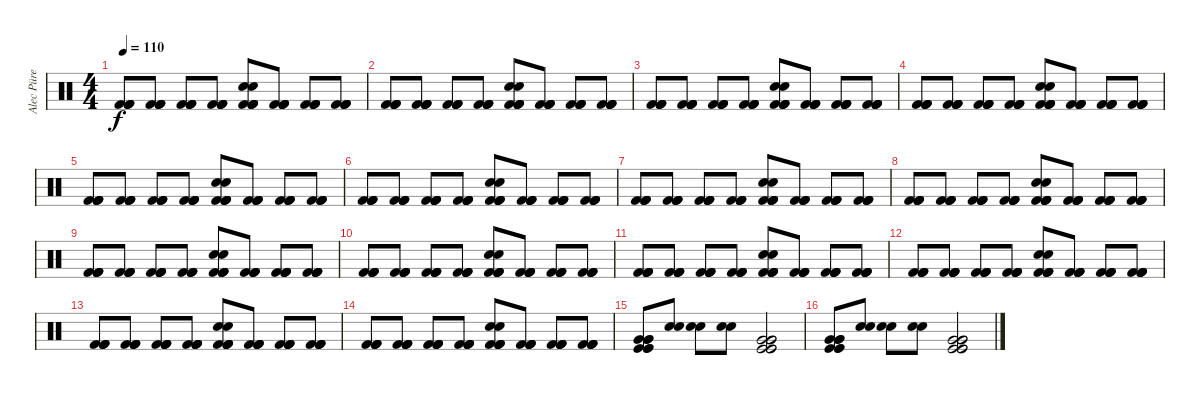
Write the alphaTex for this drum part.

\track ("Alec Püre" "Alec Püre") {instrument percussion}
\staff {score}
\articulation defaults
\ts (4 4)
\tempo 110
\clef neutral
\ks c
("Kick (hit) 2" "Kick (hit) 2" "Kick (hit) 2" "Kick (hit) 2").8{dy f} ("Kick (hit) 2" "Kick (hit) 2" "Kick (hit) 2" "Kick (hit) 2").8 ("Kick (hit) 2" "Kick (hit) 2" "Kick (hit) 2" "Kick (hit) 2").8 ("Kick (hit) 2" "Kick (hit) 2" "Kick (hit) 2" "Kick (hit) 2").8 ("Snare (hit) 2" "Snare (hit) 2" "Kick (hit) 2" "Kick (hit) 2" "Kick (hit) 2" "Kick (hit) 2").8 ("Kick (hit) 2" "Kick (hit) 2" "Kick (hit) 2" "Kick (hit) 2").8 ("Kick (hit) 2" "Kick (hit) 2" "Kick (hit) 2" "Kick (hit) 2").8 ("Kick (hit) 2" "Kick (hit) 2" "Kick (hit) 2" "Kick (hit) 2").8 |
("Kick (hit) 2" "Kick (hit) 2" "Kick (hit) 2" "Kick (hit) 2").8 ("Kick (hit) 2" "Kick (hit) 2" "Kick (hit) 2" "Kick (hit) 2").8 ("Kick (hit) 2" "Kick (hit) 2" "Kick (hit) 2" "Kick (hit) 2").8 ("Kick (hit) 2" "Kick (hit) 2" "Kick (hit) 2" "Kick (hit) 2").8 ("Snare (hit) 2" "Snare (hit) 2" "Kick (hit) 2" "Kick (hit) 2" "Kick (hit) 2" "Kick (hit) 2").8 ("Kick (hit) 2" "Kick (hit) 2" "Kick (hit) 2" "Kick (hit) 2").8 ("Kick (hit) 2" "Kick (hit) 2" "Kick (hit) 2" "Kick (hit) 2").8 ("Kick (hit) 2" "Kick (hit) 2" "Kick (hit) 2" "Kick (hit) 2").8 |
("Kick (hit) 2" "Kick (hit) 2" "Kick (hit) 2" "Kick (hit) 2").8 ("Kick (hit) 2" "Kick (hit) 2" "Kick (hit) 2" "Kick (hit) 2").8 ("Kick (hit) 2" "Kick (hit) 2" "Kick (hit) 2" "Kick (hit) 2").8 ("Kick (hit) 2" "Kick (hit) 2" "Kick (hit) 2" "Kick (hit) 2").8 ("Snare (hit) 2" "Snare (hit) 2" "Kick (hit) 2" "Kick (hit) 2" "Kick (hit) 2" "Kick (hit) 2").8 ("Kick (hit) 2" "Kick (hit) 2" "Kick (hit) 2" "Kick (hit) 2").8 ("Kick (hit) 2" "Kick (hit) 2" "Kick (hit) 2" "Kick (hit) 2").8 ("Kick (hit) 2" "Kick (hit) 2" "Kick (hit) 2" "Kick (hit) 2").8 |
("Kick (hit) 2" "Kick (hit) 2" "Kick (hit) 2" "Kick (hit) 2").8 ("Kick (hit) 2" "Kick (hit) 2" "Kick (hit) 2" "Kick (hit) 2").8 ("Kick (hit) 2" "Kick (hit) 2" "Kick (hit) 2" "Kick (hit) 2").8 ("Kick (hit) 2" "Kick (hit) 2" "Kick (hit) 2" "Kick (hit) 2").8 ("Snare (hit) 2" "Snare (hit) 2" "Kick (hit) 2" "Kick (hit) 2" "Kick (hit) 2" "Kick (hit) 2").8 ("Kick (hit) 2" "Kick (hit) 2" "Kick (hit) 2" "Kick (hit) 2").8 ("Kick (hit) 2" "Kick (hit) 2" "Kick (hit) 2" "Kick (hit) 2").8 ("Kick (hit) 2" "Kick (hit) 2" "Kick (hit) 2" "Kick (hit) 2").8 |
("Kick (hit) 2" "Kick (hit) 2" "Kick (hit) 2" "Kick (hit) 2").8 ("Kick (hit) 2" "Kick (hit) 2" "Kick (hit) 2" "Kick (hit) 2").8 ("Kick (hit) 2" "Kick (hit) 2" "Kick (hit) 2" "Kick (hit) 2").8 ("Kick (hit) 2" "Kick (hit) 2" "Kick (hit) 2" "Kick (hit) 2").8 ("Snare (hit) 2" "Snare (hit) 2" "Kick (hit) 2" "Kick (hit) 2" "Kick (hit) 2" "Kick (hit) 2").8 ("Kick (hit) 2" "Kick (hit) 2" "Kick (hit) 2" "Kick (hit) 2").8 ("Kick (hit) 2" "Kick (hit) 2" "Kick (hit) 2" "Kick (hit) 2").8 ("Kick (hit) 2" "Kick (hit) 2" "Kick (hit) 2" "Kick (hit) 2").8 |
("Kick (hit) 2" "Kick (hit) 2" "Kick (hit) 2" "Kick (hit) 2").8 ("Kick (hit) 2" "Kick (hit) 2" "Kick (hit) 2" "Kick (hit) 2").8 ("Kick (hit) 2" "Kick (hit) 2" "Kick (hit) 2" "Kick (hit) 2").8 ("Kick (hit) 2" "Kick (hit) 2" "Kick (hit) 2" "Kick (hit) 2").8 ("Snare (hit) 2" "Snare (hit) 2" "Kick (hit) 2" "Kick (hit) 2" "Kick (hit) 2" "Kick (hit) 2").8 ("Kick (hit) 2" "Kick (hit) 2" "Kick (hit) 2" "Kick (hit) 2").8 ("Kick (hit) 2" "Kick (hit) 2" "Kick (hit) 2" "Kick (hit) 2").8 ("Kick (hit) 2" "Kick (hit) 2" "Kick (hit) 2" "Kick (hit) 2").8 |
("Kick (hit) 2" "Kick (hit) 2" "Kick (hit) 2" "Kick (hit) 2").8 ("Kick (hit) 2" "Kick (hit) 2" "Kick (hit) 2" "Kick (hit) 2").8 ("Kick (hit) 2" "Kick (hit) 2" "Kick (hit) 2" "Kick (hit) 2").8 ("Kick (hit) 2" "Kick (hit) 2" "Kick (hit) 2" "Kick (hit) 2").8 ("Snare (hit) 2" "Snare (hit) 2" "Kick (hit) 2" "Kick (hit) 2" "Kick (hit) 2" "Kick (hit) 2").8 ("Kick (hit) 2" "Kick (hit) 2" "Kick (hit) 2" "Kick (hit) 2").8 ("Kick (hit) 2" "Kick (hit) 2" "Kick (hit) 2" "Kick (hit) 2").8 ("Kick (hit) 2" "Kick (hit) 2" "Kick (hit) 2" "Kick (hit) 2").8 |
("Kick (hit) 2" "Kick (hit) 2" "Kick (hit) 2" "Kick (hit) 2").8 ("Kick (hit) 2" "Kick (hit) 2" "Kick (hit) 2" "Kick (hit) 2").8 ("Kick (hit) 2" "Kick (hit) 2" "Kick (hit) 2" "Kick (hit) 2").8 ("Kick (hit) 2" "Kick (hit) 2" "Kick (hit) 2" "Kick (hit) 2").8 ("Snare (hit) 2" "Snare (hit) 2" "Kick (hit) 2" "Kick (hit) 2" "Kick (hit) 2" "Kick (hit) 2").8 ("Kick (hit) 2" "Kick (hit) 2" "Kick (hit) 2" "Kick (hit) 2").8 ("Kick (hit) 2" "Kick (hit) 2" "Kick (hit) 2" "Kick (hit) 2").8 ("Kick (hit) 2" "Kick (hit) 2" "Kick (hit) 2" "Kick (hit) 2").8 |
("Kick (hit) 2" "Kick (hit) 2" "Kick (hit) 2" "Kick (hit) 2").8 ("Kick (hit) 2" "Kick (hit) 2" "Kick (hit) 2" "Kick (hit) 2").8 ("Kick (hit) 2" "Kick (hit) 2" "Kick (hit) 2" "Kick (hit) 2").8 ("Kick (hit) 2" "Kick (hit) 2" "Kick (hit) 2" "Kick (hit) 2").8 ("Snare (hit) 2" "Snare (hit) 2" "Kick (hit) 2" "Kick (hit) 2" "Kick (hit) 2" "Kick (hit) 2").8 ("Kick (hit) 2" "Kick (hit) 2" "Kick (hit) 2" "Kick (hit) 2").8 ("Kick (hit) 2" "Kick (hit) 2" "Kick (hit) 2" "Kick (hit) 2").8 ("Kick (hit) 2" "Kick (hit) 2" "Kick (hit) 2" "Kick (hit) 2").8 |
("Kick (hit) 2" "Kick (hit) 2" "Kick (hit) 2" "Kick (hit) 2").8 ("Kick (hit) 2" "Kick (hit) 2" "Kick (hit) 2" "Kick (hit) 2").8 ("Kick (hit) 2" "Kick (hit) 2" "Kick (hit) 2" "Kick (hit) 2").8 ("Kick (hit) 2" "Kick (hit) 2" "Kick (hit) 2" "Kick (hit) 2").8 ("Snare (hit) 2" "Snare (hit) 2" "Kick (hit) 2" "Kick (hit) 2" "Kick (hit) 2" "Kick (hit) 2").8 ("Kick (hit) 2" "Kick (hit) 2" "Kick (hit) 2" "Kick (hit) 2").8 ("Kick (hit) 2" "Kick (hit) 2" "Kick (hit) 2" "Kick (hit) 2").8 ("Kick (hit) 2" "Kick (hit) 2" "Kick (hit) 2" "Kick (hit) 2").8 |
("Kick (hit) 2" "Kick (hit) 2" "Kick (hit) 2" "Kick (hit) 2").8 ("Kick (hit) 2" "Kick (hit) 2" "Kick (hit) 2" "Kick (hit) 2").8 ("Kick (hit) 2" "Kick (hit) 2" "Kick (hit) 2" "Kick (hit) 2").8 ("Kick (hit) 2" "Kick (hit) 2" "Kick (hit) 2" "Kick (hit) 2").8 ("Snare (hit) 2" "Snare (hit) 2" "Kick (hit) 2" "Kick (hit) 2" "Kick (hit) 2" "Kick (hit) 2").8 ("Kick (hit) 2" "Kick (hit) 2" "Kick (hit) 2" "Kick (hit) 2").8 ("Kick (hit) 2" "Kick (hit) 2" "Kick (hit) 2" "Kick (hit) 2").8 ("Kick (hit) 2" "Kick (hit) 2" "Kick (hit) 2" "Kick (hit) 2").8 |
("Kick (hit) 2" "Kick (hit) 2" "Kick (hit) 2" "Kick (hit) 2").8 ("Kick (hit) 2" "Kick (hit) 2" "Kick (hit) 2" "Kick (hit) 2").8 ("Kick (hit) 2" "Kick (hit) 2" "Kick (hit) 2" "Kick (hit) 2").8 ("Kick (hit) 2" "Kick (hit) 2" "Kick (hit) 2" "Kick (hit) 2").8 ("Snare (hit) 2" "Snare (hit) 2" "Kick (hit) 2" "Kick (hit) 2" "Kick (hit) 2" "Kick (hit) 2").8 ("Kick (hit) 2" "Kick (hit) 2" "Kick (hit) 2" "Kick (hit) 2").8 ("Kick (hit) 2" "Kick (hit) 2" "Kick (hit) 2" "Kick (hit) 2").8 ("Kick (hit) 2" "Kick (hit) 2" "Kick (hit) 2" "Kick (hit) 2").8 |
("Kick (hit) 2" "Kick (hit) 2" "Kick (hit) 2" "Kick (hit) 2").8 ("Kick (hit) 2" "Kick (hit) 2" "Kick (hit) 2" "Kick (hit) 2").8 ("Kick (hit) 2" "Kick (hit) 2" "Kick (hit) 2" "Kick (hit) 2").8 ("Kick (hit) 2" "Kick (hit) 2" "Kick (hit) 2" "Kick (hit) 2").8 ("Snare (hit) 2" "Snare (hit) 2" "Kick (hit) 2" "Kick (hit) 2" "Kick (hit) 2" "Kick (hit) 2").8 ("Kick (hit) 2" "Kick (hit) 2" "Kick (hit) 2" "Kick (hit) 2").8 ("Kick (hit) 2" "Kick (hit) 2" "Kick (hit) 2" "Kick (hit) 2").8 ("Kick (hit) 2" "Kick (hit) 2" "Kick (hit) 2" "Kick (hit) 2").8 |
("Kick (hit) 2" "Kick (hit) 2" "Kick (hit) 2" "Kick (hit) 2").8 ("Kick (hit) 2" "Kick (hit) 2" "Kick (hit) 2" "Kick (hit) 2").8 ("Kick (hit) 2" "Kick (hit) 2" "Kick (hit) 2" "Kick (hit) 2").8 ("Kick (hit) 2" "Kick (hit) 2" "Kick (hit) 2" "Kick (hit) 2").8 ("Snare (hit) 2" "Snare (hit) 2" "Kick (hit) 2" "Kick (hit) 2" "Kick (hit) 2" "Kick (hit) 2").8 ("Kick (hit) 2" "Kick (hit) 2" "Kick (hit) 2" "Kick (hit) 2").8 ("Kick (hit) 2" "Kick (hit) 2" "Kick (hit) 2" "Kick (hit) 2").8 ("Kick (hit) 2" "Kick (hit) 2" "Kick (hit) 2" "Kick (hit) 2").8 |
("Very Low Tom (hit)" "Very Low Tom (hit)" "Very Low Tom (hit)" "Kick (hit)" "Kick (hit)" "Kick (hit)").8 ("Electric Snare (hit)" "Electric Snare (hit)").8 ("Electric Snare (hit)" "Electric Snare (hit)").8 ("Electric Snare (hit)" "Electric Snare (hit)").8 ("Very Low Tom (hit)" "Very Low Tom (hit)" "Very Low Tom (hit)" "Kick (hit)" "Kick (hit)" "Kick (hit)").2 |
("Very Low Tom (hit)" "Very Low Tom (hit)" "Very Low Tom (hit)" "Kick (hit)" "Kick (hit)" "Kick (hit)").8 ("Electric Snare (hit)" "Electric Snare (hit)").8 ("Electric Snare (hit)" "Electric Snare (hit)").8 ("Electric Snare (hit)" "Electric Snare (hit)").8 ("Very Low Tom (hit)" "Very Low Tom (hit)" "Very Low Tom (hit)" "Kick (hit)" "Kick (hit)" "Kick (hit)").2
